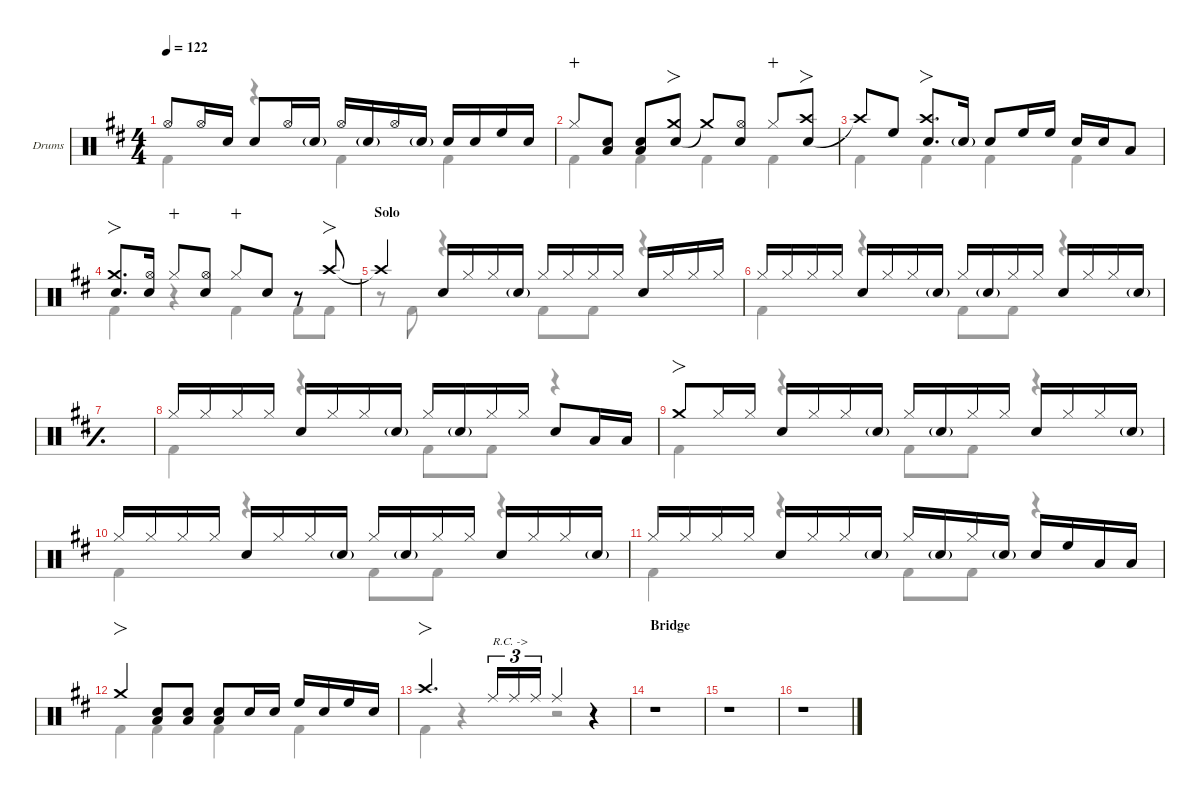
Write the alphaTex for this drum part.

\defaultSystemsLayout 4
\hideDynamics
\bracketExtendMode nobrackets
\firstSystemTrackNameOrientation horizontal
\track ("Drums" "Drums") {defaultSystemsLayout 4 instrument percussion}
\staff {score}
\articulation defaults
\voice
\ts (4 4)
\tempo 122
\clef neutral
\scale
0.488921
\ks d "Hi-Hat (open)"{acc forcenatural}.8{dy f beam Up} "Hi-Hat (open)"{acc forcenatural}.16{dy mf beam Up} "Snare (hit) 2"{acc forcenatural}.16{beam Up beam split} "Snare (hit) 2"{acc forcenatural}.8{dy f beam Up} "Hi-Hat (open)"{acc forcenatural}.16{dy mf beam Up} "Snare (hit) 2"{g acc forcenatural}.16{beam Up} "Hi-Hat (open)"{acc forcenatural}.16{dy f beam Up} "Snare (hit) 2"{g acc forcenatural}.16{dy mf beam Up} "Hi-Hat (open)"{acc forcenatural}.16{beam Up} "Snare (hit) 2"{g acc forcenatural}.16{beam Up beam split} "Snare (hit) 2"{acc forcenatural}.16{dy f beam Up} "Snare (hit) 2"{acc forcenatural}.16{dy mf beam Up} "High Floor Tom (hit)"{acc forcenatural}.16{dy f beam Up} "Snare (hit) 2"{acc forcenatural}.16{dy mf beam Up}
|
\scale
0.348105 "Hi-Hat (closed)"{acc forcenatural}.8{dy mp wahc beam Up} ("Snare (hit) 2"{acc forcenatural} "Low Tom (hit)"{acc forcenatural}).8{dy f beam Up} ("Snare (hit) 2"{acc forcenatural} "Low Tom (hit)"{acc forcenatural}).8{beam Up} ("Snare (hit) 2"{acc forcenatural} "Crash medium (hit)"{acc forcenatural}).8{fo beam Up} "Crash medium (hit)"{t acc forcenatural}.8{beam Up} ("Snare (hit) 2"{acc forcenatural} "Hi-Hat (open)"{acc forcenatural}).8{beam Up} "Hi-Hat (closed)"{acc forcenatural}.8{dy mp wahc beam Up} ("Snare (hit) 2"{acc forcenatural} "Crash high (hit)"{acc forcenatural}).8{fo dy f beam Up} |
\scale
0.325947 "Crash high (hit)"{t acc forcenatural}.8{beam Up} "High Floor Tom (hit)"{acc forcenatural}.8{beam Up beam split} ("Crash high (hit)"{acc forcenatural} "Snare (hit) 2"{acc forcenatural}).8{fo d beam Up} "Snare (hit) 2"{g acc forcenatural}.16{dy mf beam Up} "Snare (hit) 2"{acc forcenatural}.8{dy f beam Up} "High Floor Tom (hit)"{acc forcenatural}.16{beam Up} "High Floor Tom (hit)"{acc forcenatural}.16{beam Up beam split} "Snare (hit) 2"{acc forcenatural}.16{beam Up} "Snare (hit) 2"{acc forcenatural}.16{dy mf beam Up} "Low Tom (hit)"{acc forcenatural}.8{dy f beam Up} |
\scale
0.325947 ("Crash medium (hit)"{acc forcenatural} "Snare (hit) 2"{acc forcenatural}).8{fo d beam Up} ("Snare (hit) 2"{acc forcenatural} "Hi-Hat (open)"{acc forcenatural}).16{beam Up beam split} "Hi-Hat (closed)"{acc forcenatural}.8{dy mp wahc beam Up} ("Snare (hit) 2"{acc forcenatural} "Hi-Hat (open)"{acc forcenatural}).8{dy f beam Up} "Hi-Hat (closed)"{acc forcenatural}.8{wahc beam Up} "Snare (hit) 2"{acc forcenatural}.8{beam Up} r.8{beam Up} "Crash high (hit)"{acc forcenatural}.8{fo beam Up} |
\section ("" "Solo")
\scale
0.266618 "Crash high (hit)"{t acc forcenatural}.4{beam Up} "Snare (hit) 2"{acc forcenatural}.16{beam Up} "Hi-Hat (closed)"{acc forcenatural}.16{dy mf beam Up} "Hi-Hat (closed)"{acc forcenatural}.16{dy f beam Up} "Snare (hit) 2"{g acc forcenatural}.16{dy mf beam Up} "Hi-Hat (closed)"{acc forcenatural}.16{dy f beam Up} "Hi-Hat (closed)"{acc forcenatural}.16{dy mf beam Up} "Hi-Hat (closed)"{acc forcenatural}.16{dy f beam Up} "Hi-Hat (closed)"{acc forcenatural}.16{dy mf beam Up beam split} "Snare (hit) 2"{acc forcenatural}.16{dy f beam Up} "Hi-Hat (closed)"{acc forcenatural}.16{dy mf beam Up} "Hi-Hat (closed)"{acc forcenatural}.16{dy f beam Up} "Hi-Hat (closed)"{acc forcenatural}.16{dy mf beam Up} |
\scale
0.244461 "Hi-Hat (closed)"{acc forcenatural}.16{dy f beam Up} "Hi-Hat (closed)"{acc forcenatural}.16{dy mf beam Up} "Hi-Hat (closed)"{acc forcenatural}.16{dy f beam Up} "Hi-Hat (closed)"{acc forcenatural}.16{dy mf beam Up beam split} "Snare (hit) 2"{acc forcenatural}.16{dy f beam Up} "Hi-Hat (closed)"{acc forcenatural}.16{dy mf beam Up} "Hi-Hat (closed)"{acc forcenatural}.16{dy f beam Up} "Snare (hit) 2"{g acc forcenatural}.16{dy mf beam Up} "Hi-Hat (closed)"{acc forcenatural}.16{dy f beam Up} "Snare (hit) 2"{g acc forcenatural}.16{dy mf beam Up} "Hi-Hat (closed)"{acc forcenatural}.16{dy f beam Up} "Hi-Hat (closed)"{acc forcenatural}.16{dy mf beam Up beam split} "Snare (hit) 2"{acc forcenatural}.16{dy f beam Up} "Hi-Hat (closed)"{acc forcenatural}.16{dy mf beam Up} "Hi-Hat (closed)"{acc forcenatural}.16{dy f beam Up} "Snare (hit) 2"{g acc forcenatural}.16{dy mf beam Up} |
\simile simple
\scale
0.24446 |
\simile none
\scale
0.244461 "Hi-Hat (closed)"{acc forcenatural}.16{dy f beam Up} "Hi-Hat (closed)"{acc forcenatural}.16{dy mf beam Up} "Hi-Hat (closed)"{acc forcenatural}.16{dy f beam Up} "Hi-Hat (closed)"{acc forcenatural}.16{dy mf beam Up beam split} "Snare (hit) 2"{acc forcenatural}.16{beam Up} "Hi-Hat (closed)"{acc forcenatural}.16{beam Up} "Hi-Hat (closed)"{acc forcenatural}.16{dy f beam Up} "Snare (hit) 2"{g acc forcenatural}.16{dy mf beam Up} "Hi-Hat (closed)"{acc forcenatural}.16{dy f beam Up} "Snare (hit) 2"{g acc forcenatural}.16{dy mf beam Up} "Hi-Hat (closed)"{acc forcenatural}.16{dy f beam Up} "Hi-Hat (closed)"{acc forcenatural}.16{dy mf beam Up beam split} "Snare (hit) 2"{acc forcenatural}.8{dy f beam Up} "Low Tom (hit)"{acc forcenatural}.16{beam Up} "Low Tom (hit)"{acc forcenatural}.16{beam Up} |
\scale
0.266618 "Crash medium (hit)"{acc forcenatural}.8{fo beam Up} "Hi-Hat (closed)"{acc forcenatural}.16{beam Up} "Hi-Hat (closed)"{acc forcenatural}.16{dy mf beam Up beam split} "Snare (hit) 2"{acc forcenatural}.16{dy f beam Up} "Hi-Hat (closed)"{acc forcenatural}.16{dy mf beam Up} "Hi-Hat (closed)"{acc forcenatural}.16{dy f beam Up} "Snare (hit) 2"{g acc forcenatural}.16{dy mf beam Up} "Hi-Hat (closed)"{acc forcenatural}.16{dy f beam Up} "Snare (hit) 2"{g acc forcenatural}.16{dy mf beam Up} "Hi-Hat (closed)"{acc forcenatural}.16{dy f beam Up} "Hi-Hat (closed)"{acc forcenatural}.16{dy mf beam Up beam split} "Snare (hit) 2"{acc forcenatural}.16{dy f beam Up} "Hi-Hat (closed)"{acc forcenatural}.16{dy mf beam Up} "Hi-Hat (closed)"{acc forcenatural}.16{dy f beam Up} "Snare (hit) 2"{g acc forcenatural}.16{dy mf beam Up} |
\scale
0.244461 "Hi-Hat (closed)"{acc forcenatural}.16{dy f beam Up} "Hi-Hat (closed)"{acc forcenatural}.16{dy mf beam Up} "Hi-Hat (closed)"{acc forcenatural}.16{dy f beam Up} "Hi-Hat (closed)"{acc forcenatural}.16{dy mf beam Up beam split} "Snare (hit) 2"{acc forcenatural}.16{dy f beam Up} "Hi-Hat (closed)"{acc forcenatural}.16{dy mf beam Up} "Hi-Hat (closed)"{acc forcenatural}.16{dy f beam Up} "Snare (hit) 2"{g acc forcenatural}.16{dy mf beam Up} "Hi-Hat (closed)"{acc forcenatural}.16{dy f beam Up} "Snare (hit) 2"{g acc forcenatural}.16{dy mf beam Up} "Hi-Hat (closed)"{acc forcenatural}.16{dy f beam Up} "Hi-Hat (closed)"{acc forcenatural}.16{dy mf beam Up beam split} "Snare (hit) 2"{acc forcenatural}.16{dy f beam Up} "Hi-Hat (closed)"{acc forcenatural}.16{dy mf beam Up} "Hi-Hat (closed)"{acc forcenatural}.16{dy f beam Up} "Snare (hit) 2"{g acc forcenatural}.16{dy mf beam Up} |
\scale
0.24446 "Hi-Hat (closed)"{acc forcenatural}.16{dy f beam Up} "Hi-Hat (closed)"{acc forcenatural}.16{dy mf beam Up} "Hi-Hat (closed)"{acc forcenatural}.16{dy f beam Up} "Hi-Hat (closed)"{acc forcenatural}.16{dy mf beam Up beam split} "Snare (hit) 2"{acc forcenatural}.16{dy f beam Up} "Hi-Hat (closed)"{acc forcenatural}.16{dy mf beam Up} "Hi-Hat (closed)"{acc forcenatural}.16{dy f beam Up} "Snare (hit) 2"{g acc forcenatural}.16{dy mf beam Up} "Hi-Hat (closed)"{acc forcenatural}.16{dy f beam Up} "Snare (hit) 2"{g acc forcenatural}.16{dy mf beam Up} "Hi-Hat (closed)"{acc forcenatural}.16{dy f beam Up} "Snare (hit) 2"{g acc forcenatural}.16{dy mf beam Up beam split} "Snare (hit) 2"{acc forcenatural}.16{dy f beam Up} "High Floor Tom (hit)"{acc forcenatural}.16{beam Up} "Low Tom (hit)"{acc forcenatural}.16{beam Up} "Low Tom (hit)"{acc forcenatural}.16{beam Up} |
\scale
0.244461 "Crash medium (hit)"{acc forcenatural}.4{fo beam Up} ("Snare (hit) 2"{acc forcenatural} "Low Tom (hit)"{acc forcenatural}).8{beam Up} ("Snare (hit) 2"{acc forcenatural} "Low Tom (hit)"{acc forcenatural}).8{beam Up} ("Snare (hit) 2"{acc forcenatural} "Low Tom (hit)"{acc forcenatural}).8{beam Up} "Snare (hit) 2"{acc forcenatural}.16{beam Up} "Snare (hit) 2"{acc forcenatural}.16{dy mf beam Up beam split} "High Floor Tom (hit)"{acc forcenatural}.16{dy f beam Up} "Snare (hit) 2"{acc forcenatural}.16{beam Up} "High Floor Tom (hit)"{acc forcenatural}.16{beam Up} "Snare (hit) 2"{acc forcenatural}.16{beam Up} |
"Crash high (hit)"{acc forcenatural}.4{fo d beam Up} "Ride (middle)"{acc forcenatural}.16{tu (3 2) txt "R.C. ->" beam Up} "Ride (middle)"{acc forcenatural}.16{tu (3 2) dy mf beam Up} "Ride (middle)"{acc forcenatural}.16{tu (3 2) beam Up} "Ride (middle)"{acc forcenatural}.4{dy f beam Up} r.4{beam Up} |
\section ("" "Bridge")
\scale
0.266618 r.1{beam Up} |
\scale
0.244461 r.1{beam Up} |
\scale
0.24446 r.1{beam Up}
\voice
\clef neutral
\ottava regular
\simile none
\scale
0.488921
\ks d "Kick (hit) 2"{acc forcenatural}.4{dy f beam Down}
r.4{beam Down} "Kick (hit) 2"{acc forcenatural}.4{beam Down} "Kick (hit) 2"{acc forcenatural}.4{beam Down} |
\scale
0.348105 "Kick (hit) 2"{acc forcenatural}.4{beam Down} "Kick (hit) 2"{acc forcenatural}.4{beam Down} "Kick (hit) 2"{acc forcenatural}.4{beam Down} "Kick (hit) 2"{acc forcenatural}.4{beam Down} |
\scale
0.325947 "Kick (hit) 2"{acc forcenatural}.4{beam Down} "Kick (hit) 2"{acc forcenatural}.4{beam Down} "Kick (hit) 2"{acc forcenatural}.4{beam Down} "Kick (hit) 2"{acc forcenatural}.4{beam Down} |
\scale
0.325947 "Kick (hit) 2"{acc forcenatural}.4{beam Down} r.4{beam Down} "Kick (hit) 2"{acc forcenatural}.4{beam Down} "Kick (hit) 2"{acc forcenatural}.8{beam Down} "Kick (hit) 2"{acc forcenatural}.8{beam Down} |
\scale
0.266618 r.8{beam Down} "Kick (hit) 2"{acc forcenatural}.8{beam Down} r.4{beam Down} "Kick (hit) 2"{acc forcenatural}.8{beam Down} "Kick (hit) 2"{acc forcenatural}.8{beam Down} r.4{beam Down} |
\scale
0.244461 "Kick (hit) 2"{acc forcenatural}.4{beam Down} r.4{beam Down} "Kick (hit) 2"{acc forcenatural}.8{beam Down} "Kick (hit) 2"{acc forcenatural}.8{beam Down} r.4{beam Down} |
\simile simple
\scale
0.24446 |
\simile none
\scale
0.244461 "Kick (hit) 2"{acc forcenatural}.4{beam Down} r.4{beam Down} "Kick (hit) 2"{acc forcenatural}.8{beam Down} "Kick (hit) 2"{acc forcenatural}.8{beam Down} r.4{beam Down} |
\scale
0.266618 "Kick (hit) 2"{acc forcenatural}.4{beam Down} r.4{beam Down} "Kick (hit) 2"{acc forcenatural}.8{beam Down} "Kick (hit) 2"{acc forcenatural}.8{beam Down} r.4{beam Down} |
\scale
0.244461 "Kick (hit) 2"{acc forcenatural}.4{beam Down} r.4{beam Down} "Kick (hit) 2"{acc forcenatural}.8{beam Down} "Kick (hit) 2"{acc forcenatural}.8{beam Down} r.4{beam Down} |
\scale
0.24446 "Kick (hit) 2"{acc forcenatural}.4{beam Down} r.4{beam Down} "Kick (hit) 2"{acc forcenatural}.8{beam Down} "Kick (hit) 2"{acc forcenatural}.8{beam Down} r.4{beam Down} |
\scale
0.244461 "Kick (hit) 2"{acc forcenatural}.4{beam Down} "Kick (hit) 2"{acc forcenatural}.4{beam Down} "Kick (hit) 2"{acc forcenatural}.4{beam Down} "Kick (hit) 2"{acc forcenatural}.4{beam Down} |
"Kick (hit) 2"{acc forcenatural}.4{beam Down} r.4{beam Down} r.2{beam Down} |
\scale
0.266618 r.1{beam Down} |
\scale
0.244461 r.1{beam Down} |
\scale
0.24446 r.1{beam Down}
